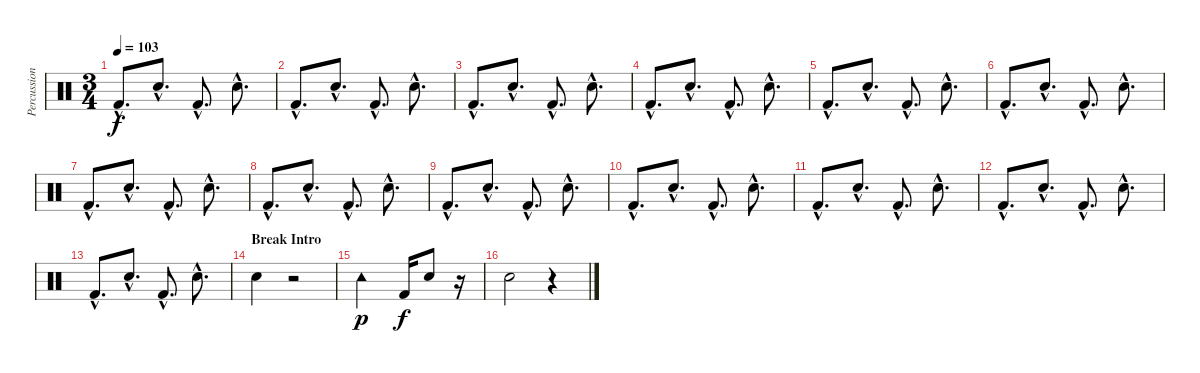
\track ("Percussion" "Percussion") {instrument percussion}
\staff {score}
\articulation defaults
\ts (3 4)
\tempo 103
\clef neutral
\ks c "Kick (hit) 2"{hac}.8{d dy f} "Electric Snare (hit)"{hac}.8{d} "Kick (hit) 2"{hac}.8{d} "Electric Snare (hit)"{hac}.8{d}
|
"Kick (hit) 2"{hac}.8{d} "Electric Snare (hit)"{hac}.8{d} "Kick (hit) 2"{hac}.8{d} "Electric Snare (hit)"{hac}.8{d} |
"Kick (hit) 2"{hac}.8{d} "Electric Snare (hit)"{hac}.8{d} "Kick (hit) 2"{hac}.8{d} "Electric Snare (hit)"{hac}.8{d} |
"Kick (hit) 2"{hac}.8{d} "Electric Snare (hit)"{hac}.8{d} "Kick (hit) 2"{hac}.8{d} "Electric Snare (hit)"{hac}.8{d} |
"Kick (hit) 2"{hac}.8{d} "Electric Snare (hit)"{hac}.8{d} "Kick (hit) 2"{hac}.8{d} "Electric Snare (hit)"{hac}.8{d} |
"Kick (hit) 2"{hac}.8{d} "Electric Snare (hit)"{hac}.8{d} "Kick (hit) 2"{hac}.8{d} "Electric Snare (hit)"{hac}.8{d} |
"Kick (hit) 2"{hac}.8{d} "Electric Snare (hit)"{hac}.8{d} "Kick (hit) 2"{hac}.8{d} "Electric Snare (hit)"{hac}.8{d} |
"Kick (hit) 2"{hac}.8{d} "Electric Snare (hit)"{hac}.8{d} "Kick (hit) 2"{hac}.8{d} "Electric Snare (hit)"{hac}.8{d} |
"Kick (hit) 2"{hac}.8{d} "Electric Snare (hit)"{hac}.8{d} "Kick (hit) 2"{hac}.8{d} "Electric Snare (hit)"{hac}.8{d} |
"Kick (hit) 2"{hac}.8{d} "Electric Snare (hit)"{hac}.8{d} "Kick (hit) 2"{hac}.8{d} "Electric Snare (hit)"{hac}.8{d} |
"Kick (hit) 2"{hac}.8{d} "Electric Snare (hit)"{hac}.8{d} "Kick (hit) 2"{hac}.8{d} "Electric Snare (hit)"{hac}.8{d} |
"Kick (hit) 2"{hac}.8{d} "Electric Snare (hit)"{hac}.8{d} "Kick (hit) 2"{hac}.8{d} "Electric Snare (hit)"{hac}.8{d} |
"Kick (hit) 2"{hac}.8{d} "Electric Snare (hit)"{hac}.8{d} "Kick (hit) 2"{hac}.8{d} "Electric Snare (hit)"{hac}.8{d} |
\section ("" "Break Intro")
"Electric Snare (hit)".4 r.2 |
"Tambourine (hit)".2{dy p} "Kick (hit) 2".16{dy f} "Electric Snare (hit)".8 r.16 |
"Electric Snare (hit)".2 r.4
